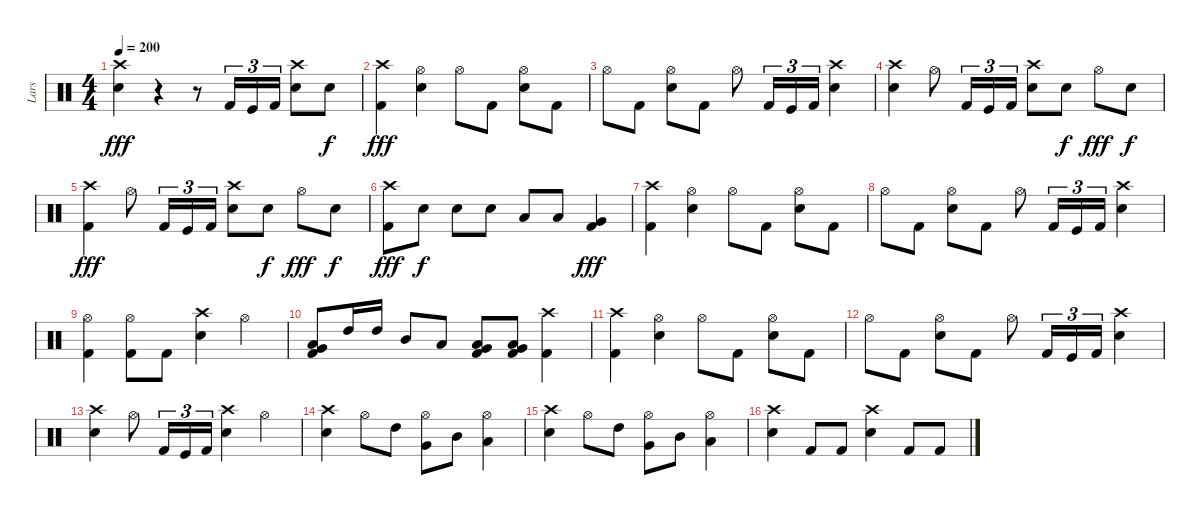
\track ("Lars" "Lars") {instrument percussion}
\staff {score}
\articulation defaults
\ts (4 4)
\tempo 200
\clef neutral
\ks c
("Crash high (hit)" "Snare (hit) 2").4{dy fff} r.4 r.8 "Kick (hit) 2".16{tu (3 2)} "Kick (hit)".16{tu (3 2)} "Kick (hit) 2".16{tu (3 2)} ("Crash high (hit)" "Snare (hit) 2").8 "Snare (hit) 2".8{dy f} |
("Crash high (hit)" "Kick (hit) 2").4{dy fff} ("Hi-Hat (open)" "Snare (hit) 2").4 "Hi-Hat (open)".8 "Kick (hit) 2".8 ("Hi-Hat (open)" "Snare (hit) 2").8 "Kick (hit) 2".8 |
"Hi-Hat (open)".8 "Kick (hit) 2".8 ("Hi-Hat (open)" "Snare (hit) 2").8 "Kick (hit) 2".8 "Hi-Hat (open)".8 "Kick (hit) 2".16{tu (3 2)} "Kick (hit)".16{tu (3 2)} "Kick (hit) 2".16{tu (3 2)} ("Crash high (hit)" "Snare (hit) 2").4 |
("Crash high (hit)" "Snare (hit) 2").4 "Hi-Hat (open)".8 "Kick (hit) 2".16{tu (3 2)} "Kick (hit)".16{tu (3 2)} "Kick (hit) 2".16{tu (3 2)} ("Crash high (hit)" "Snare (hit) 2").8 "Snare (hit) 2".8{dy f} "Hi-Hat (open)".8{dy fff} "Snare (hit) 2".8{dy f} |
("Crash high (hit)" "Kick (hit) 2").4{dy fff} "Hi-Hat (open)".8 "Kick (hit) 2".16{tu (3 2)} "Kick (hit)".16{tu (3 2)} "Kick (hit) 2".16{tu (3 2)} ("Crash high (hit)" "Snare (hit) 2").8 "Snare (hit) 2".8{dy f} "Hi-Hat (open)".8{dy fff} "Snare (hit) 2".8{dy f} |
("Crash high (hit)" "Kick (hit) 2").8{dy fff} "Snare (hit) 2".8{dy f} "Snare (hit) 2".8 "Snare (hit) 2".8 "Low Tom (hit)".8 "Low Tom (hit)".8 ("Very Low Tom (hit)" "Kick (hit) 2").4{dy fff} |
("Crash high (hit)" "Kick (hit) 2").4 ("Hi-Hat (open)" "Snare (hit) 2").4 "Hi-Hat (open)".8 "Kick (hit) 2".8 ("Hi-Hat (open)" "Snare (hit) 2").8 "Kick (hit) 2".8 |
"Hi-Hat (open)".8 "Kick (hit) 2".8 ("Hi-Hat (open)" "Snare (hit) 2").8 "Kick (hit) 2".8 "Hi-Hat (open)".8 "Kick (hit) 2".16{tu (3 2)} "Kick (hit)".16{tu (3 2)} "Kick (hit) 2".16{tu (3 2)} ("Crash high (hit)" "Snare (hit) 2").4 |
("Hi-Hat (open)" "Kick (hit) 2").4 ("Hi-Hat (open)" "Kick (hit) 2").8 "Kick (hit) 2".8 ("Crash high (hit)" "Snare (hit) 2").4 "Hi-Hat (open)".4 |
("Low Tom (hit)" "Very Low Tom (hit)" "Kick (hit) 2").8 "High Tom (hit)".16 "High Tom (hit)".16 "Mid Tom (hit)".8 "Low Tom (hit)".8 ("Very Low Tom (hit)" "Low Floor Tom (hit)" "Kick (hit) 2").8 ("Very Low Tom (hit)" "Low Floor Tom (hit)" "Kick (hit) 2").8 ("Crash high (hit)" "Kick (hit) 2").4 |
("Crash high (hit)" "Kick (hit) 2").4 ("Hi-Hat (open)" "Snare (hit) 2").4 "Hi-Hat (open)".8 "Kick (hit) 2".8 ("Hi-Hat (open)" "Snare (hit) 2").8 "Kick (hit) 2".8 |
"Hi-Hat (open)".8 "Kick (hit) 2".8 ("Hi-Hat (open)" "Snare (hit) 2").8 "Kick (hit) 2".8 "Hi-Hat (open)".8 "Kick (hit) 2".16{tu (3 2)} "Kick (hit)".16{tu (3 2)} "Kick (hit) 2".16{tu (3 2)} ("Crash high (hit)" "Snare (hit) 2").4 |
("Crash high (hit)" "Snare (hit) 2").4 "Hi-Hat (open)".8 "Kick (hit) 2".16{tu (3 2)} "Kick (hit)".16{tu (3 2)} "Kick (hit) 2".16{tu (3 2)} ("Crash high (hit)" "Snare (hit) 2").4 "Hi-Hat (open)".4 |
("Crash high (hit)" "Snare (hit) 2").4 "Hi-Hat (open)".8 "High Tom (hit)".8 ("Hi-Hat (open)" "Very Low Tom (hit)").8 "Mid Tom (hit)".8 ("Hi-Hat (open)" "Low Floor Tom (hit)").4 |
("Crash high (hit)" "Snare (hit) 2").4 "Hi-Hat (open)".8 "High Tom (hit)".8 ("Hi-Hat (open)" "Very Low Tom (hit)").8 "Mid Tom (hit)".8 ("Hi-Hat (open)" "Low Floor Tom (hit)").4 |
("Crash high (hit)" "Snare (hit) 2").4 "Kick (hit) 2".8 "Kick (hit) 2".8 ("Crash high (hit)" "Snare (hit) 2").4 "Kick (hit) 2".8 "Kick (hit) 2".8
